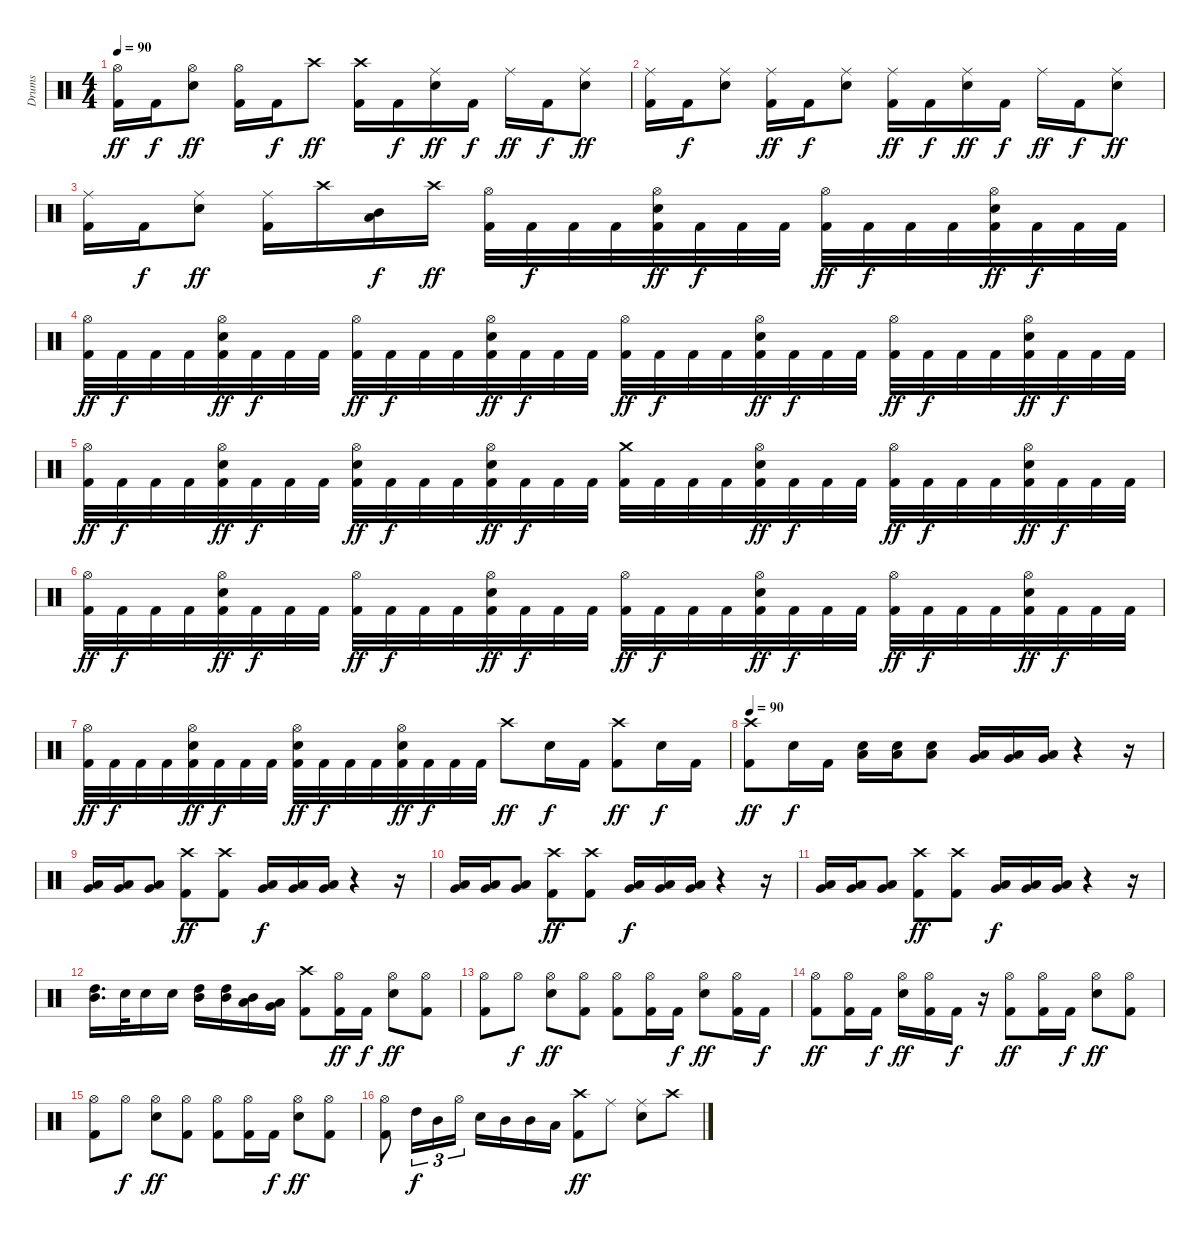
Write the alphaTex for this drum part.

\track ("Drums" "Drums") {instrument percussion}
\staff {score}
\articulation defaults
\ts (4 4)
\tempo 90
\clef neutral
\ks c
("Hi-Hat (open)" "Kick (hit) 2").16{dy ff} "Kick (hit) 2".16{dy f} ("Hi-Hat (open)" "Electric Snare (hit)").8{dy ff} ("Hi-Hat (open)" "Kick (hit) 2").16 "Kick (hit) 2".16{dy f} "Crash high (hit)".8{dy ff} ("Crash high (hit)" "Kick (hit) 2").16 "Kick (hit) 2".16{dy f} ("Ride (middle)" "Electric Snare (hit)").16{dy ff} "Kick (hit) 2".16{dy f} "Ride (middle)".16{dy ff} "Kick (hit) 2".16{dy f} ("Ride (middle)" "Electric Snare (hit)").8{dy ff} |
("Ride (middle)" "Kick (hit) 2").16 "Kick (hit) 2".16{dy f} ("Ride (middle)" "Electric Snare (hit)").8 ("Ride (middle)" "Kick (hit) 2").16{dy ff} "Kick (hit) 2".16{dy f} ("Ride (middle)" "Electric Snare (hit)").8 ("Ride (middle)" "Kick (hit) 2").16{dy ff} "Kick (hit) 2".16{dy f} ("Ride (middle)" "Electric Snare (hit)").16{dy ff} "Kick (hit) 2".16{dy f} "Ride (middle)".16{dy ff} "Kick (hit) 2".16{dy f} ("Ride (middle)" "Electric Snare (hit)").8{dy ff} |
("Ride (middle)" "Kick (hit) 2").16 "Kick (hit) 2".16{dy f} ("Ride (middle)" "Electric Snare (hit)").8{dy ff} ("Ride (middle)" "Kick (hit) 2").16 "Crash high (hit)".16 ("Mid Tom (hit)" "Low Tom (hit)").16{dy f} "Crash high (hit)".16{dy ff} ("Hi-Hat (open)" "Kick (hit) 2").32 "Kick (hit) 2".32{dy f} "Kick (hit) 2".32 "Kick (hit) 2".32 ("Hi-Hat (open)" "Electric Snare (hit)" "Kick (hit) 2").32{dy ff} "Kick (hit) 2".32{dy f} "Kick (hit) 2".32 "Kick (hit) 2".32 ("Hi-Hat (open)" "Kick (hit) 2").32{dy ff} "Kick (hit) 2".32{dy f} "Kick (hit) 2".32 "Kick (hit) 2".32 ("Hi-Hat (open)" "Electric Snare (hit)" "Kick (hit) 2").32{dy ff} "Kick (hit) 2".32{dy f} "Kick (hit) 2".32 "Kick (hit) 2".32 |
("Hi-Hat (open)" "Kick (hit) 2").32{dy ff} "Kick (hit) 2".32{dy f} "Kick (hit) 2".32 "Kick (hit) 2".32 ("Hi-Hat (open)" "Electric Snare (hit)" "Kick (hit) 2").32{dy ff} "Kick (hit) 2".32{dy f} "Kick (hit) 2".32 "Kick (hit) 2".32 ("Hi-Hat (open)" "Kick (hit) 2").32{dy ff} "Kick (hit) 2".32{dy f} "Kick (hit) 2".32 "Kick (hit) 2".32 ("Hi-Hat (open)" "Electric Snare (hit)" "Kick (hit) 2").32{dy ff} "Kick (hit) 2".32{dy f} "Kick (hit) 2".32 "Kick (hit) 2".32 ("Hi-Hat (open)" "Kick (hit) 2").32{dy ff} "Kick (hit) 2".32{dy f} "Kick (hit) 2".32 "Kick (hit) 2".32 ("Hi-Hat (open)" "Electric Snare (hit)" "Kick (hit) 2").32{dy ff} "Kick (hit) 2".32{dy f} "Kick (hit) 2".32 "Kick (hit) 2".32 ("Hi-Hat (open)" "Kick (hit) 2").32{dy ff} "Kick (hit) 2".32{dy f} "Kick (hit) 2".32 "Kick (hit) 2".32 ("Hi-Hat (open)" "Electric Snare (hit)" "Kick (hit) 2").32{dy ff} "Kick (hit) 2".32{dy f} "Kick (hit) 2".32 "Kick (hit) 2".32 |
("Hi-Hat (open)" "Kick (hit) 2").32{dy ff} "Kick (hit) 2".32{dy f} "Kick (hit) 2".32 "Kick (hit) 2".32 ("Hi-Hat (open)" "Electric Snare (hit)" "Kick (hit) 2").32{dy ff} "Kick (hit) 2".32{dy f} "Kick (hit) 2".32 "Kick (hit) 2".32 ("Hi-Hat (open)" "Electric Snare (hit)" "Kick (hit) 2").32{dy ff} "Kick (hit) 2".32{dy f} "Kick (hit) 2".32 "Kick (hit) 2".32 ("Hi-Hat (open)" "Electric Snare (hit)" "Kick (hit) 2").32{dy ff} "Kick (hit) 2".32{dy f} "Kick (hit) 2".32 "Kick (hit) 2".32 ("Crash medium (hit)" "Kick (hit) 2").32 "Kick (hit) 2".32 "Kick (hit) 2".32 "Kick (hit) 2".32 ("Hi-Hat (open)" "Electric Snare (hit)" "Kick (hit) 2").32{dy ff} "Kick (hit) 2".32{dy f} "Kick (hit) 2".32 "Kick (hit) 2".32 ("Hi-Hat (open)" "Kick (hit) 2").32{dy ff} "Kick (hit) 2".32{dy f} "Kick (hit) 2".32 "Kick (hit) 2".32 ("Hi-Hat (open)" "Electric Snare (hit)" "Kick (hit) 2").32{dy ff} "Kick (hit) 2".32{dy f} "Kick (hit) 2".32 "Kick (hit) 2".32 |
("Hi-Hat (open)" "Kick (hit) 2").32{dy ff} "Kick (hit) 2".32{dy f} "Kick (hit) 2".32 "Kick (hit) 2".32 ("Hi-Hat (open)" "Electric Snare (hit)" "Kick (hit) 2").32{dy ff} "Kick (hit) 2".32{dy f} "Kick (hit) 2".32 "Kick (hit) 2".32 ("Hi-Hat (open)" "Kick (hit) 2").32{dy ff} "Kick (hit) 2".32{dy f} "Kick (hit) 2".32 "Kick (hit) 2".32 ("Hi-Hat (open)" "Electric Snare (hit)" "Kick (hit) 2").32{dy ff} "Kick (hit) 2".32{dy f} "Kick (hit) 2".32 "Kick (hit) 2".32 ("Hi-Hat (open)" "Kick (hit) 2").32{dy ff} "Kick (hit) 2".32{dy f} "Kick (hit) 2".32 "Kick (hit) 2".32 ("Hi-Hat (open)" "Electric Snare (hit)" "Kick (hit) 2").32{dy ff} "Kick (hit) 2".32{dy f} "Kick (hit) 2".32 "Kick (hit) 2".32 ("Hi-Hat (open)" "Kick (hit) 2").32{dy ff} "Kick (hit) 2".32{dy f} "Kick (hit) 2".32 "Kick (hit) 2".32 ("Hi-Hat (open)" "Electric Snare (hit)" "Kick (hit) 2").32{dy ff} "Kick (hit) 2".32{dy f} "Kick (hit) 2".32 "Kick (hit) 2".32 |
("Hi-Hat (open)" "Kick (hit) 2").32{dy ff} "Kick (hit) 2".32{dy f} "Kick (hit) 2".32 "Kick (hit) 2".32 ("Hi-Hat (open)" "Electric Snare (hit)" "Kick (hit) 2").32{dy ff} "Kick (hit) 2".32{dy f} "Kick (hit) 2".32 "Kick (hit) 2".32 ("Hi-Hat (open)" "Electric Snare (hit)" "Kick (hit) 2").32{dy ff} "Kick (hit) 2".32{dy f} "Kick (hit) 2".32 "Kick (hit) 2".32 ("Hi-Hat (open)" "Electric Snare (hit)" "Kick (hit) 2").32{dy ff} "Kick (hit) 2".32{dy f} "Kick (hit) 2".32 "Kick (hit) 2".32 "Crash high (hit)".8{dy ff} "Electric Snare (hit)".16{dy f} "Kick (hit) 2".16 ("Crash high (hit)" "Kick (hit) 2").8{dy ff} "Electric Snare (hit)".16{dy f} "Kick (hit) 2".16 |
\tempo 90
("Crash high (hit)" "Kick (hit) 2").8{dy ff} "Electric Snare (hit)".16{dy f} "Kick (hit) 2".16 ("Low Floor Tom (hit)" "Electric Snare (hit)").16 ("Low Floor Tom (hit)" "Electric Snare (hit)").16 ("Low Floor Tom (hit)" "Electric Snare (hit)").8 ("Very Low Tom (hit)" "Low Floor Tom (hit)").16 ("Very Low Tom (hit)" "Low Floor Tom (hit)").16 ("Very Low Tom (hit)" "Low Floor Tom (hit)").16 r.4 r.16 |
("Very Low Tom (hit)" "Low Floor Tom (hit)").16 ("Very Low Tom (hit)" "Low Floor Tom (hit)").16 ("Very Low Tom (hit)" "Low Floor Tom (hit)").8 ("Crash high (hit)" "Kick (hit) 2").8{dy ff} ("Crash high (hit)" "Kick (hit) 2").8 ("Very Low Tom (hit)" "Low Floor Tom (hit)").16{dy f} ("Very Low Tom (hit)" "Low Floor Tom (hit)").16 ("Very Low Tom (hit)" "Low Floor Tom (hit)").16 r.4 r.16 |
("Very Low Tom (hit)" "Low Floor Tom (hit)").16 ("Very Low Tom (hit)" "Low Floor Tom (hit)").16 ("Very Low Tom (hit)" "Low Floor Tom (hit)").8 ("Crash high (hit)" "Kick (hit) 2").8{dy ff} ("Crash high (hit)" "Kick (hit) 2").8 ("Very Low Tom (hit)" "Low Floor Tom (hit)").16{dy f} ("Very Low Tom (hit)" "Low Floor Tom (hit)").16 ("Very Low Tom (hit)" "Low Floor Tom (hit)").16 r.4 r.16 |
("Very Low Tom (hit)" "Low Floor Tom (hit)").16 ("Very Low Tom (hit)" "Low Floor Tom (hit)").16 ("Very Low Tom (hit)" "Low Floor Tom (hit)").8 ("Crash high (hit)" "Kick (hit) 2").8{dy ff} ("Crash high (hit)" "Kick (hit) 2").8 ("Very Low Tom (hit)" "Low Floor Tom (hit)").16{dy f} ("Very Low Tom (hit)" "Low Floor Tom (hit)").16 ("Very Low Tom (hit)" "Low Floor Tom (hit)").16 r.4 r.16 |
("High Tom (hit)" "Mid Tom (hit)").16{d} "Electric Snare (hit)".32 "Electric Snare (hit)".16 "Electric Snare (hit)".16 ("High Tom (hit)" "Mid Tom (hit)").16 ("High Tom (hit)" "Mid Tom (hit)").16 ("Mid Tom (hit)" "Low Tom (hit)").16 ("Low Tom (hit)" "Very Low Tom (hit)").16 ("Crash high (hit)" "Kick (hit) 2").8 ("Hi-Hat (open)" "Kick (hit) 2").16{dy ff} "Kick (hit) 2".16{dy f} ("Hi-Hat (open)" "Electric Snare (hit)").8{dy ff} ("Hi-Hat (open)" "Kick (hit) 2").8 |
("Hi-Hat (open)" "Kick (hit) 2").8 "Hi-Hat (open)".8{dy f} ("Hi-Hat (open)" "Electric Snare (hit)").8{dy ff} ("Hi-Hat (open)" "Kick (hit) 2").8 ("Hi-Hat (open)" "Kick (hit) 2").8 ("Hi-Hat (open)" "Kick (hit) 2").16 "Kick (hit) 2".16{dy f} ("Hi-Hat (open)" "Electric Snare (hit)").8{dy ff} ("Hi-Hat (open)" "Kick (hit) 2").16 "Kick (hit) 2".16{dy f} |
("Hi-Hat (open)" "Kick (hit) 2").8{dy ff} ("Hi-Hat (open)" "Kick (hit) 2").16 "Kick (hit) 2".16{dy f} ("Hi-Hat (open)" "Electric Snare (hit)").16{dy ff} ("Hi-Hat (open)" "Kick (hit) 2").16 "Kick (hit) 2".16{dy f} r.16 ("Hi-Hat (open)" "Kick (hit) 2").8{dy ff} ("Hi-Hat (open)" "Kick (hit) 2").16 "Kick (hit) 2".16{dy f} ("Hi-Hat (open)" "Electric Snare (hit)").8{dy ff} ("Hi-Hat (open)" "Kick (hit) 2").8 |
("Hi-Hat (open)" "Kick (hit) 2").8 "Hi-Hat (open)".8{dy f} ("Hi-Hat (open)" "Electric Snare (hit)").8{dy ff} ("Hi-Hat (open)" "Kick (hit) 2").8 ("Hi-Hat (open)" "Kick (hit) 2").8 ("Hi-Hat (open)" "Kick (hit) 2").16 "Kick (hit) 2".16{dy f} ("Hi-Hat (open)" "Electric Snare (hit)").8{dy ff} ("Hi-Hat (open)" "Kick (hit) 2").8 |
("Hi-Hat (open)" "Kick (hit) 2").8 "High Tom (hit)".16{tu (3 2) dy f} "Mid Tom (hit)".16{tu (3 2)} "Hi-Hat (open)".16{tu (3 2)} "Electric Snare (hit)".16 "Mid Tom (hit)".16 "Mid Tom (hit)".16 "Low Tom (hit)".16 ("Crash high (hit)" "Kick (hit) 2").8{dy ff} "Ride (middle)".8 ("Ride (middle)" "Electric Snare (hit)").8 "Crash high (hit)".8
